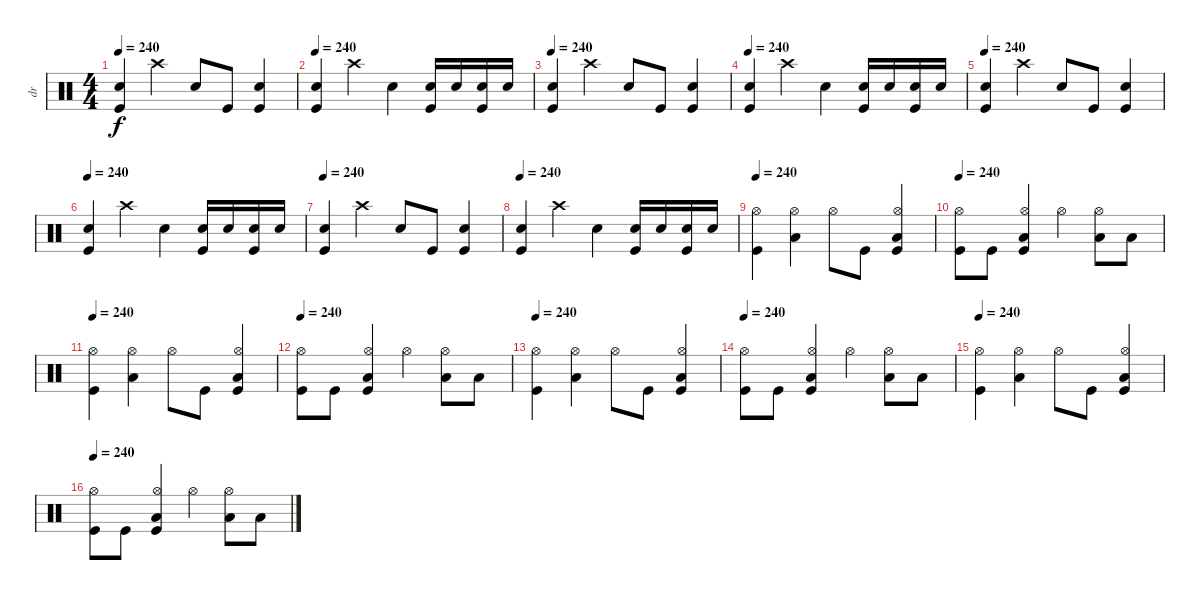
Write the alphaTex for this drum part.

\track ("dr" "dr") {instrument percussion}
\staff {score}
\articulation defaults
\ts (4 4)
\tempo 240
\clef neutral
\ks c
("Snare (hit) 2" "Kick (hit)").4{dy f} "Crash high (hit)".4 "Snare (hit) 2".8 "Kick (hit)".8 ("Snare (hit) 2" "Kick (hit)").4 |
\tempo 240
("Snare (hit) 2" "Kick (hit)").4 "Crash high (hit)".4 "Snare (hit) 2".4 ("Snare (hit) 2" "Kick (hit)").16 "Snare (hit) 2".16 ("Snare (hit) 2" "Kick (hit)").16 "Snare (hit) 2".16 |
\tempo 240
("Snare (hit) 2" "Kick (hit)").4 "Crash high (hit)".4 "Snare (hit) 2".8 "Kick (hit)".8 ("Snare (hit) 2" "Kick (hit)").4 |
\tempo 240
("Snare (hit) 2" "Kick (hit)").4 "Crash high (hit)".4 "Snare (hit) 2".4 ("Snare (hit) 2" "Kick (hit)").16 "Snare (hit) 2".16 ("Snare (hit) 2" "Kick (hit)").16 "Snare (hit) 2".16 |
\tempo 240
("Snare (hit) 2" "Kick (hit)").4 "Crash high (hit)".4 "Snare (hit) 2".8 "Kick (hit)".8 ("Snare (hit) 2" "Kick (hit)").4 |
\tempo 240
("Snare (hit) 2" "Kick (hit)").4 "Crash high (hit)".4 "Snare (hit) 2".4 ("Snare (hit) 2" "Kick (hit)").16 "Snare (hit) 2".16 ("Snare (hit) 2" "Kick (hit)").16 "Snare (hit) 2".16 |
\tempo 240
("Snare (hit) 2" "Kick (hit)").4 "Crash high (hit)".4 "Snare (hit) 2".8 "Kick (hit)".8 ("Snare (hit) 2" "Kick (hit)").4 |
\tempo 240
("Snare (hit) 2" "Kick (hit)").4 "Crash high (hit)".4 "Snare (hit) 2".4 ("Snare (hit) 2" "Kick (hit)").16 "Snare (hit) 2".16 ("Snare (hit) 2" "Kick (hit)").16 "Snare (hit) 2".16 |
\tempo 240
("Hi-Hat (open)" "Kick (hit)").4 ("Hi-Hat (open)" "Low Floor Tom (hit)").4 "Hi-Hat (open)".8 "Kick (hit)".8 ("Hi-Hat (open)" "Low Floor Tom (hit)" "Kick (hit)").4 |
\tempo 240
("Hi-Hat (open)" "Kick (hit)").8 "Kick (hit)".8 ("Hi-Hat (open)" "Low Floor Tom (hit)" "Kick (hit)").4 "Hi-Hat (open)".4 ("Hi-Hat (open)" "Low Floor Tom (hit)").8 "Low Floor Tom (hit)".8 |
\tempo 240
("Hi-Hat (open)" "Kick (hit)").4 ("Hi-Hat (open)" "Low Floor Tom (hit)").4 "Hi-Hat (open)".8 "Kick (hit)".8 ("Hi-Hat (open)" "Low Floor Tom (hit)" "Kick (hit)").4 |
\tempo 240
("Hi-Hat (open)" "Kick (hit)").8 "Kick (hit)".8 ("Hi-Hat (open)" "Low Floor Tom (hit)" "Kick (hit)").4 "Hi-Hat (open)".4 ("Hi-Hat (open)" "Low Floor Tom (hit)").8 "Low Floor Tom (hit)".8 |
\tempo 240
("Hi-Hat (open)" "Kick (hit)").4 ("Hi-Hat (open)" "Low Floor Tom (hit)").4 "Hi-Hat (open)".8 "Kick (hit)".8 ("Hi-Hat (open)" "Low Floor Tom (hit)" "Kick (hit)").4 |
\tempo 240
("Hi-Hat (open)" "Kick (hit)").8 "Kick (hit)".8 ("Hi-Hat (open)" "Low Floor Tom (hit)" "Kick (hit)").4 "Hi-Hat (open)".4 ("Hi-Hat (open)" "Low Floor Tom (hit)").8 "Low Floor Tom (hit)".8 |
\tempo 240
("Hi-Hat (open)" "Kick (hit)").4 ("Hi-Hat (open)" "Low Floor Tom (hit)").4 "Hi-Hat (open)".8 "Kick (hit)".8 ("Hi-Hat (open)" "Low Floor Tom (hit)" "Kick (hit)").4 |
\tempo 240
("Hi-Hat (open)" "Kick (hit)").8 "Kick (hit)".8 ("Hi-Hat (open)" "Low Floor Tom (hit)" "Kick (hit)").4 "Hi-Hat (open)".4 ("Hi-Hat (open)" "Low Floor Tom (hit)").8 "Low Floor Tom (hit)".8
